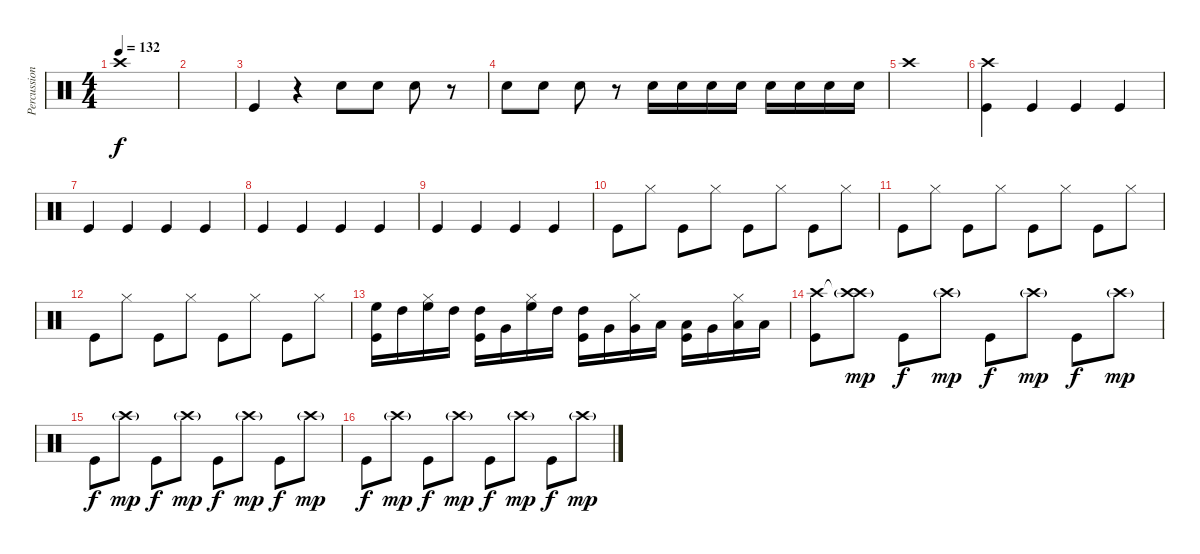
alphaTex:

\track ("Percussion" "Percussion") {instrument percussion}
\staff {score}
\articulation defaults
\ts (4 4)
\tempo 132
\clef neutral
\ks c "Crash high (hit)".1{dy f}
|
|
"Kick (hit)".4 r.4 "Electric Snare (hit)".8 "Electric Snare (hit)".8 "Electric Snare (hit)".8 r.8 |
"Electric Snare (hit)".8 "Electric Snare (hit)".8 "Electric Snare (hit)".8 r.8 "Electric Snare (hit)".16 "Electric Snare (hit)".16 "Electric Snare (hit)".16 "Electric Snare (hit)".16 "Electric Snare (hit)".16 "Electric Snare (hit)".16 "Electric Snare (hit)".16 "Electric Snare (hit)".16 |
"Crash high (hit)".1 |
("Crash high (hit)" "Kick (hit)").4 "Kick (hit)".4 "Kick (hit)".4 "Kick (hit)".4 |
"Kick (hit)".4 "Kick (hit)".4 "Kick (hit)".4 "Kick (hit)".4 |
"Kick (hit)".4 "Kick (hit)".4 "Kick (hit)".4 "Kick (hit)".4 |
"Kick (hit)".4 "Kick (hit)".4 "Kick (hit)".4 "Kick (hit)".4 |
"Kick (hit)".8 "Hi-Hat (closed)".8 "Kick (hit)".8 "Hi-Hat (closed)".8 "Kick (hit)".8 "Hi-Hat (closed)".8 "Kick (hit)".8 "Hi-Hat (closed)".8 |
"Kick (hit)".8 "Hi-Hat (closed)".8 "Kick (hit)".8 "Hi-Hat (closed)".8 "Kick (hit)".8 "Hi-Hat (closed)".8 "Kick (hit)".8 "Hi-Hat (closed)".8 |
"Kick (hit)".8 "Hi-Hat (closed)".8 "Kick (hit)".8 "Hi-Hat (closed)".8 "Kick (hit)".8 "Hi-Hat (closed)".8 "Kick (hit)".8 "Hi-Hat (closed)".8 |
("High Floor Tom (hit)" "Kick (hit)").16 "High Tom (hit)".16 ("Hi-Hat (closed)" "High Floor Tom (hit)").16 "High Tom (hit)".16 ("High Tom (hit)" "Kick (hit)").16 "Very Low Tom (hit)".16 ("Hi-Hat (closed)" "High Floor Tom (hit)").16 "High Tom (hit)".16 ("High Tom (hit)" "Kick (hit)").16 "Very Low Tom (hit)".16 ("Hi-Hat (closed)" "Very Low Tom (hit)").16 "Low Floor Tom (hit)".16 ("Low Floor Tom (hit)" "Kick (hit)").16 "Very Low Tom (hit)".16 ("Hi-Hat (closed)" "Low Tom (hit)").16 "Low Floor Tom (hit)".16 |
("Crash high (hit)" "Kick (hit)").8 ("Crash high (hit)"{t} "Crash high (hit)"{g}).8{dy mp} "Kick (hit)".8{dy f} "Crash high (hit)"{g}.8{dy mp} "Kick (hit)".8{dy f} "Crash high (hit)"{g}.8{dy mp} "Kick (hit)".8{dy f} "Crash high (hit)"{g}.8{dy mp} |
"Kick (hit)".8{dy f} "Crash high (hit)"{g}.8{dy mp} "Kick (hit)".8{dy f} "Crash high (hit)"{g}.8{dy mp} "Kick (hit)".8{dy f} "Crash high (hit)"{g}.8{dy mp} "Kick (hit)".8{dy f} "Crash high (hit)"{g}.8{dy mp} |
"Kick (hit)".8{dy f} "Crash high (hit)"{g}.8{dy mp} "Kick (hit)".8{dy f} "Crash high (hit)"{g}.8{dy mp} "Kick (hit)".8{dy f} "Crash high (hit)"{g}.8{dy mp} "Kick (hit)".8{dy f} "Crash high (hit)"{g}.8{dy mp}
